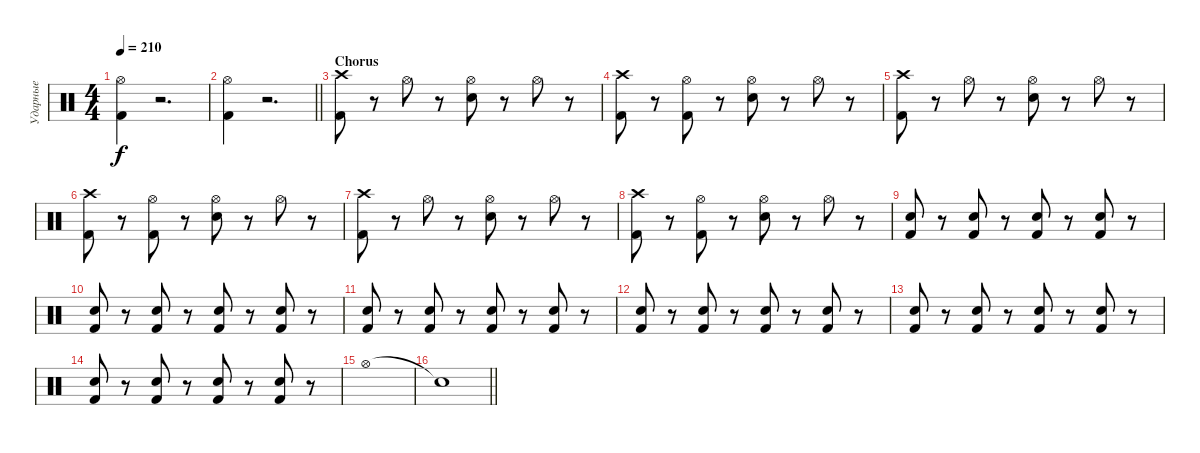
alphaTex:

\track ("Ударные" "Ударные") {instrument percussion}
\staff {score}
\articulation defaults
\ts (4 4)
\tempo 210
\clef neutral
\ks c
("Hi-Hat (open)" "Kick (hit) 2").4{dy f} r.2{d} |
\barLineRight lightlight
("Hi-Hat (open)" "Kick (hit) 2").4 r.2{d} |
\section ("" "Chorus")
("Crash high (hit)" "Kick (hit) 2").8 r.8 "Hi-Hat (open)".8 r.8 ("Hi-Hat (open)" "Snare (hit) 2").8 r.8 "Hi-Hat (open)".8 r.8 |
("Crash high (hit)" "Kick (hit) 2").8 r.8 ("Hi-Hat (open)" "Kick (hit) 2").8 r.8 ("Hi-Hat (open)" "Snare (hit) 2").8 r.8 "Hi-Hat (open)".8 r.8 |
("Crash high (hit)" "Kick (hit) 2").8 r.8 "Hi-Hat (open)".8 r.8 ("Hi-Hat (open)" "Snare (hit) 2").8 r.8 "Hi-Hat (open)".8 r.8 |
("Crash high (hit)" "Kick (hit) 2").8 r.8 ("Hi-Hat (open)" "Kick (hit) 2").8 r.8 ("Hi-Hat (open)" "Snare (hit) 2").8 r.8 "Hi-Hat (open)".8 r.8 |
("Crash high (hit)" "Kick (hit) 2").8 r.8 "Hi-Hat (open)".8 r.8 ("Hi-Hat (open)" "Snare (hit) 2").8 r.8 "Hi-Hat (open)".8 r.8 |
("Crash high (hit)" "Kick (hit) 2").8 r.8 ("Hi-Hat (open)" "Kick (hit) 2").8 r.8 ("Hi-Hat (open)" "Snare (hit) 2").8 r.8 "Hi-Hat (open)".8 r.8 |
("Snare (hit) 2" "Kick (hit) 2").8 r.8 ("Snare (hit) 2" "Kick (hit) 2").8 r.8 ("Snare (hit) 2" "Kick (hit) 2").8 r.8 ("Snare (hit) 2" "Kick (hit) 2").8 r.8 |
("Snare (hit) 2" "Kick (hit) 2").8 r.8 ("Snare (hit) 2" "Kick (hit) 2").8 r.8 ("Snare (hit) 2" "Kick (hit) 2").8 r.8 ("Snare (hit) 2" "Kick (hit) 2").8 r.8 |
("Snare (hit) 2" "Kick (hit) 2").8 r.8 ("Snare (hit) 2" "Kick (hit) 2").8 r.8 ("Snare (hit) 2" "Kick (hit) 2").8 r.8 ("Snare (hit) 2" "Kick (hit) 2").8 r.8 |
("Snare (hit) 2" "Kick (hit) 2").8 r.8 ("Snare (hit) 2" "Kick (hit) 2").8 r.8 ("Snare (hit) 2" "Kick (hit) 2").8 r.8 ("Snare (hit) 2" "Kick (hit) 2").8 r.8 |
("Snare (hit) 2" "Kick (hit) 2").8 r.8 ("Snare (hit) 2" "Kick (hit) 2").8 r.8 ("Snare (hit) 2" "Kick (hit) 2").8 r.8 ("Snare (hit) 2" "Kick (hit) 2").8 r.8 |
("Snare (hit) 2" "Kick (hit) 2").8 r.8 ("Snare (hit) 2" "Kick (hit) 2").8 r.8 ("Snare (hit) 2" "Kick (hit) 2").8 r.8 ("Snare (hit) 2" "Kick (hit) 2").8 r.8 |
"Hi-Hat (open)".1 |
\barLineRight lightlight "Snare (hit)"{t}.1
